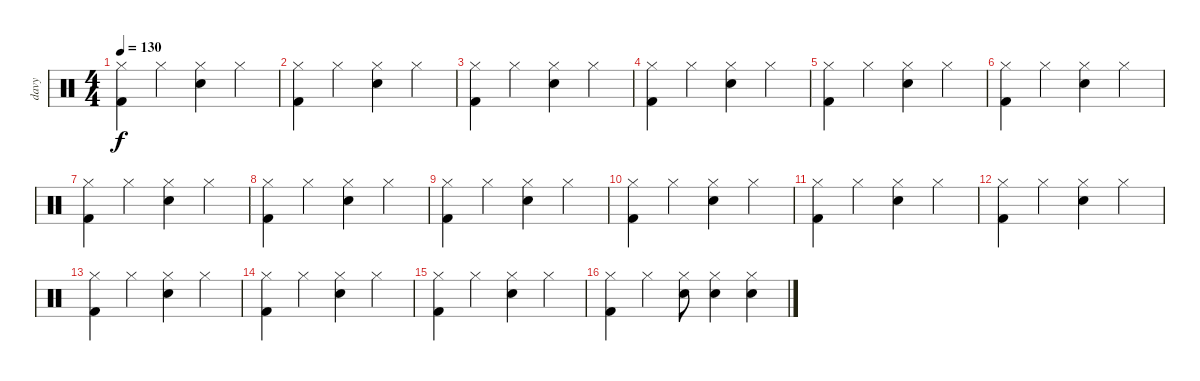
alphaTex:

\track ("davy" "davy") {instrument percussion}
\staff {score}
\articulation defaults
\ts (4 4)
\tempo 130
\clef neutral
\ks c
("Hi-Hat (closed)" "Kick (hit) 2").4{dy f} "Hi-Hat (closed)".4 ("Hi-Hat (closed)" "Snare (hit) 2").4 "Hi-Hat (closed)".4 |
("Hi-Hat (closed)" "Kick (hit) 2").4 "Hi-Hat (closed)".4 ("Hi-Hat (closed)" "Snare (hit) 2").4 "Hi-Hat (closed)".4 |
("Hi-Hat (closed)" "Kick (hit) 2").4 "Hi-Hat (closed)".4 ("Hi-Hat (closed)" "Snare (hit) 2").4 "Hi-Hat (closed)".4 |
("Hi-Hat (closed)" "Kick (hit) 2").4 "Hi-Hat (closed)".4 ("Hi-Hat (closed)" "Snare (hit) 2").4 "Hi-Hat (closed)".4 |
("Hi-Hat (closed)" "Kick (hit) 2").4 "Hi-Hat (closed)".4 ("Hi-Hat (closed)" "Snare (hit) 2").4 "Hi-Hat (closed)".4 |
("Hi-Hat (closed)" "Kick (hit) 2").4 "Hi-Hat (closed)".4 ("Hi-Hat (closed)" "Snare (hit) 2").4 "Hi-Hat (closed)".4 |
("Hi-Hat (closed)" "Kick (hit) 2").4 "Hi-Hat (closed)".4 ("Hi-Hat (closed)" "Snare (hit) 2").4 "Hi-Hat (closed)".4 |
("Hi-Hat (closed)" "Kick (hit) 2").4 "Hi-Hat (closed)".4 ("Hi-Hat (closed)" "Snare (hit) 2").4 "Hi-Hat (closed)".4 |
("Hi-Hat (closed)" "Kick (hit) 2").4 "Hi-Hat (closed)".4 ("Hi-Hat (closed)" "Snare (hit) 2").4 "Hi-Hat (closed)".4 |
("Hi-Hat (closed)" "Kick (hit) 2").4 "Hi-Hat (closed)".4 ("Hi-Hat (closed)" "Snare (hit) 2").4 "Hi-Hat (closed)".4 |
("Hi-Hat (closed)" "Kick (hit) 2").4 "Hi-Hat (closed)".4 ("Hi-Hat (closed)" "Snare (hit) 2").4 "Hi-Hat (closed)".4 |
("Hi-Hat (closed)" "Kick (hit) 2").4 "Hi-Hat (closed)".4 ("Hi-Hat (closed)" "Snare (hit) 2").4 "Hi-Hat (closed)".4 |
("Hi-Hat (closed)" "Kick (hit) 2").4 "Hi-Hat (closed)".4 ("Hi-Hat (closed)" "Snare (hit) 2").4 "Hi-Hat (closed)".4 |
("Hi-Hat (closed)" "Kick (hit) 2").4 "Hi-Hat (closed)".4 ("Hi-Hat (closed)" "Snare (hit) 2").4 "Hi-Hat (closed)".4 |
("Hi-Hat (closed)" "Kick (hit) 2").4 "Hi-Hat (closed)".4 ("Hi-Hat (closed)" "Snare (hit) 2").4 "Hi-Hat (closed)".4 |
("Hi-Hat (closed)" "Kick (hit) 2").4 "Hi-Hat (closed)".4 ("Hi-Hat (closed)" "Snare (hit) 2").8 ("Hi-Hat (closed)" "Snare (hit) 2").4 ("Hi-Hat (closed)" "Snare (hit) 2").4
